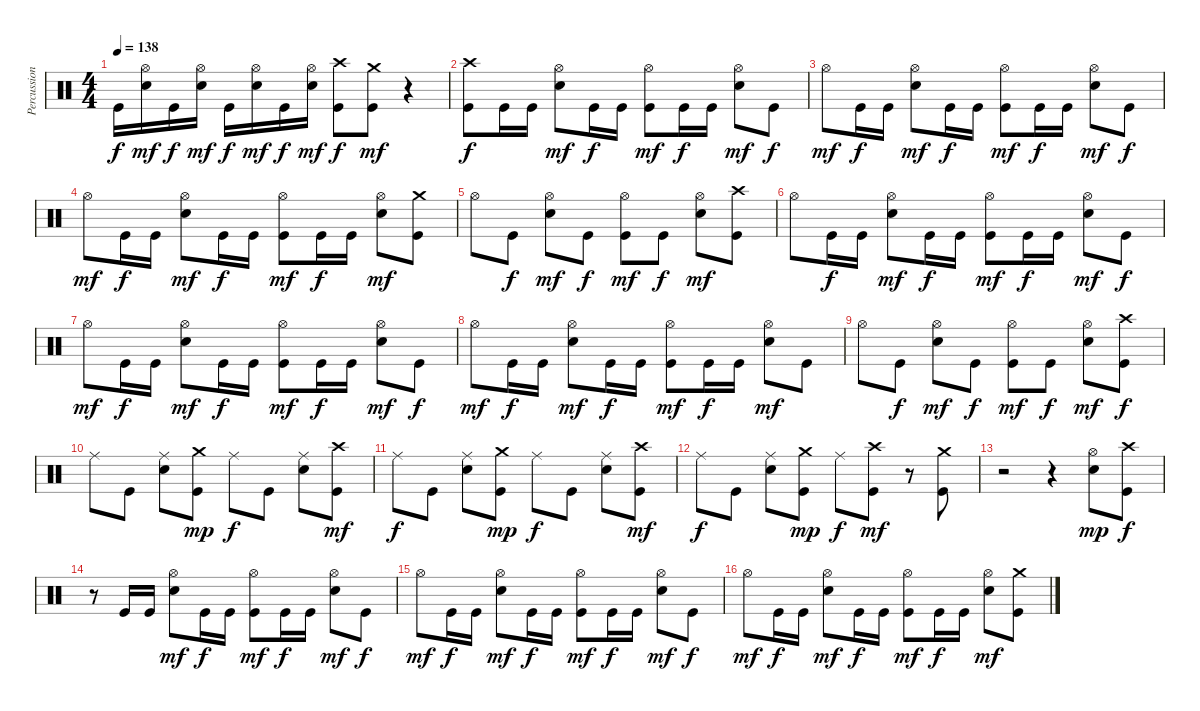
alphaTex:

\track ("Percussions" "Percussion") {instrument percussion}
\staff {score}
\articulation defaults
\ts (4 4)
\tempo 138
\clef neutral
\ks c "Kick (hit)".16{dy f}
("Electric Snare (hit)" "Hi-Hat (open)").16{dy mf} "Kick (hit)".16{dy f} ("Electric Snare (hit)" "Hi-Hat (open)").16{dy mf} "Kick (hit)".16{dy f} ("Electric Snare (hit)" "Hi-Hat (open)").16{dy mf} "Kick (hit)".16{dy f} ("Electric Snare (hit)" "Hi-Hat (open)").16{dy mf} ("Kick (hit)" "Crash high (hit)").8{dy f} ("Kick (hit)" "Crash medium (hit)").8{dy mf} r.4 |
("Kick (hit)" "Crash high (hit)").8{dy f} "Kick (hit)".16 "Kick (hit)".16 ("Electric Snare (hit)" "Hi-Hat (open)").8{dy mf} "Kick (hit)".16{dy f} "Kick (hit)".16 ("Kick (hit)" "Hi-Hat (open)").8{dy mf} "Kick (hit)".16{dy f} "Kick (hit)".16 ("Electric Snare (hit)" "Hi-Hat (open)").8{dy mf} "Kick (hit)".8{dy f} |
"Hi-Hat (open)".8{dy mf} "Kick (hit)".16{dy f} "Kick (hit)".16 ("Electric Snare (hit)" "Hi-Hat (open)").8{dy mf} "Kick (hit)".16{dy f} "Kick (hit)".16 ("Kick (hit)" "Hi-Hat (open)").8{dy mf} "Kick (hit)".16{dy f} "Kick (hit)".16 ("Electric Snare (hit)" "Hi-Hat (open)").8{dy mf} "Kick (hit)".8{dy f} |
"Hi-Hat (open)".8{dy mf} "Kick (hit)".16{dy f} "Kick (hit)".16 ("Electric Snare (hit)" "Hi-Hat (open)").8{dy mf} "Kick (hit)".16{dy f} "Kick (hit)".16 ("Kick (hit)" "Hi-Hat (open)").8{dy mf} "Kick (hit)".16{dy f} "Kick (hit)".16 ("Electric Snare (hit)" "Hi-Hat (open)").8{dy mf} ("Kick (hit)" "Crash medium (hit)").8 |
"Hi-Hat (open)".8 "Kick (hit)".8{dy f} ("Electric Snare (hit)" "Hi-Hat (open)").8{dy mf} "Kick (hit)".8{dy f} ("Kick (hit)" "Hi-Hat (open)").8{dy mf} "Kick (hit)".8{dy f} ("Electric Snare (hit)" "Hi-Hat (open)").8{dy mf} ("Kick (hit)" "Crash high (hit)").8 |
"Hi-Hat (open)".8 "Kick (hit)".16{dy f} "Kick (hit)".16 ("Electric Snare (hit)" "Hi-Hat (open)").8{dy mf} "Kick (hit)".16{dy f} "Kick (hit)".16 ("Kick (hit)" "Hi-Hat (open)").8{dy mf} "Kick (hit)".16{dy f} "Kick (hit)".16 ("Electric Snare (hit)" "Hi-Hat (open)").8{dy mf} "Kick (hit)".8{dy f} |
"Hi-Hat (open)".8{dy mf} "Kick (hit)".16{dy f} "Kick (hit)".16 ("Electric Snare (hit)" "Hi-Hat (open)").8{dy mf} "Kick (hit)".16{dy f} "Kick (hit)".16 ("Kick (hit)" "Hi-Hat (open)").8{dy mf} "Kick (hit)".16{dy f} "Kick (hit)".16 ("Electric Snare (hit)" "Hi-Hat (open)").8{dy mf} "Kick (hit)".8{dy f} |
"Hi-Hat (open)".8{dy mf} "Kick (hit)".16{dy f} "Kick (hit)".16 ("Electric Snare (hit)" "Hi-Hat (open)").8{dy mf} "Kick (hit)".16{dy f} "Kick (hit)".16 ("Kick (hit)" "Hi-Hat (open)").8{dy mf} "Kick (hit)".16{dy f} "Kick (hit)".16 ("Electric Snare (hit)" "Hi-Hat (open)").8{dy mf} "Kick (hit)".8 |
"Hi-Hat (open)".8 "Kick (hit)".8{dy f} ("Electric Snare (hit)" "Hi-Hat (open)").8{dy mf} "Kick (hit)".8{dy f} ("Kick (hit)" "Hi-Hat (open)").8{dy mf} "Kick (hit)".8{dy f} ("Electric Snare (hit)" "Hi-Hat (open)").8{dy mf} ("Kick (hit)" "Crash high (hit)").8{dy f} |
"Ride (middle)".8 "Kick (hit)".8 ("Electric Snare (hit)" "Ride (middle)").8 ("Kick (hit)" "Crash medium (hit)").8{dy mp} "Ride (middle)".8{dy f} "Kick (hit)".8 ("Electric Snare (hit)" "Ride (middle)").8 ("Kick (hit)" "Crash high (hit)").8{dy mf} |
"Ride (middle)".8{dy f} "Kick (hit)".8 ("Electric Snare (hit)" "Ride (middle)").8 ("Kick (hit)" "Crash medium (hit)").8{dy mp} "Ride (middle)".8{dy f} "Kick (hit)".8 ("Electric Snare (hit)" "Ride (middle)").8 ("Kick (hit)" "Crash high (hit)").8{dy mf} |
"Ride (middle)".8{dy f} "Kick (hit)".8 ("Electric Snare (hit)" "Ride (middle)").8 ("Kick (hit)" "Crash medium (hit)").8{dy mp} "Ride (middle)".8{dy f} ("Kick (hit)" "Crash high (hit)").8{dy mf} r.8 ("Kick (hit)" "Crash medium (hit)").8 |
r.2 r.4 ("Electric Snare (hit)" "Hi-Hat (open)").8{dy mp} ("Kick (hit)" "Crash high (hit)").8{dy f} |
r.8 "Kick (hit)".16 "Kick (hit)".16 ("Electric Snare (hit)" "Hi-Hat (open)").8{dy mf} "Kick (hit)".16{dy f} "Kick (hit)".16 ("Kick (hit)" "Hi-Hat (open)").8{dy mf} "Kick (hit)".16{dy f} "Kick (hit)".16 ("Electric Snare (hit)" "Hi-Hat (open)").8{dy mf} "Kick (hit)".8{dy f} |
"Hi-Hat (open)".8{dy mf} "Kick (hit)".16{dy f} "Kick (hit)".16 ("Electric Snare (hit)" "Hi-Hat (open)").8{dy mf} "Kick (hit)".16{dy f} "Kick (hit)".16 ("Kick (hit)" "Hi-Hat (open)").8{dy mf} "Kick (hit)".16{dy f} "Kick (hit)".16 ("Electric Snare (hit)" "Hi-Hat (open)").8{dy mf} "Kick (hit)".8{dy f} |
"Hi-Hat (open)".8{dy mf} "Kick (hit)".16{dy f} "Kick (hit)".16 ("Electric Snare (hit)" "Hi-Hat (open)").8{dy mf} "Kick (hit)".16{dy f} "Kick (hit)".16 ("Kick (hit)" "Hi-Hat (open)").8{dy mf} "Kick (hit)".16{dy f} "Kick (hit)".16 ("Electric Snare (hit)" "Hi-Hat (open)").8{dy mf} ("Kick (hit)" "Crash medium (hit)").8
